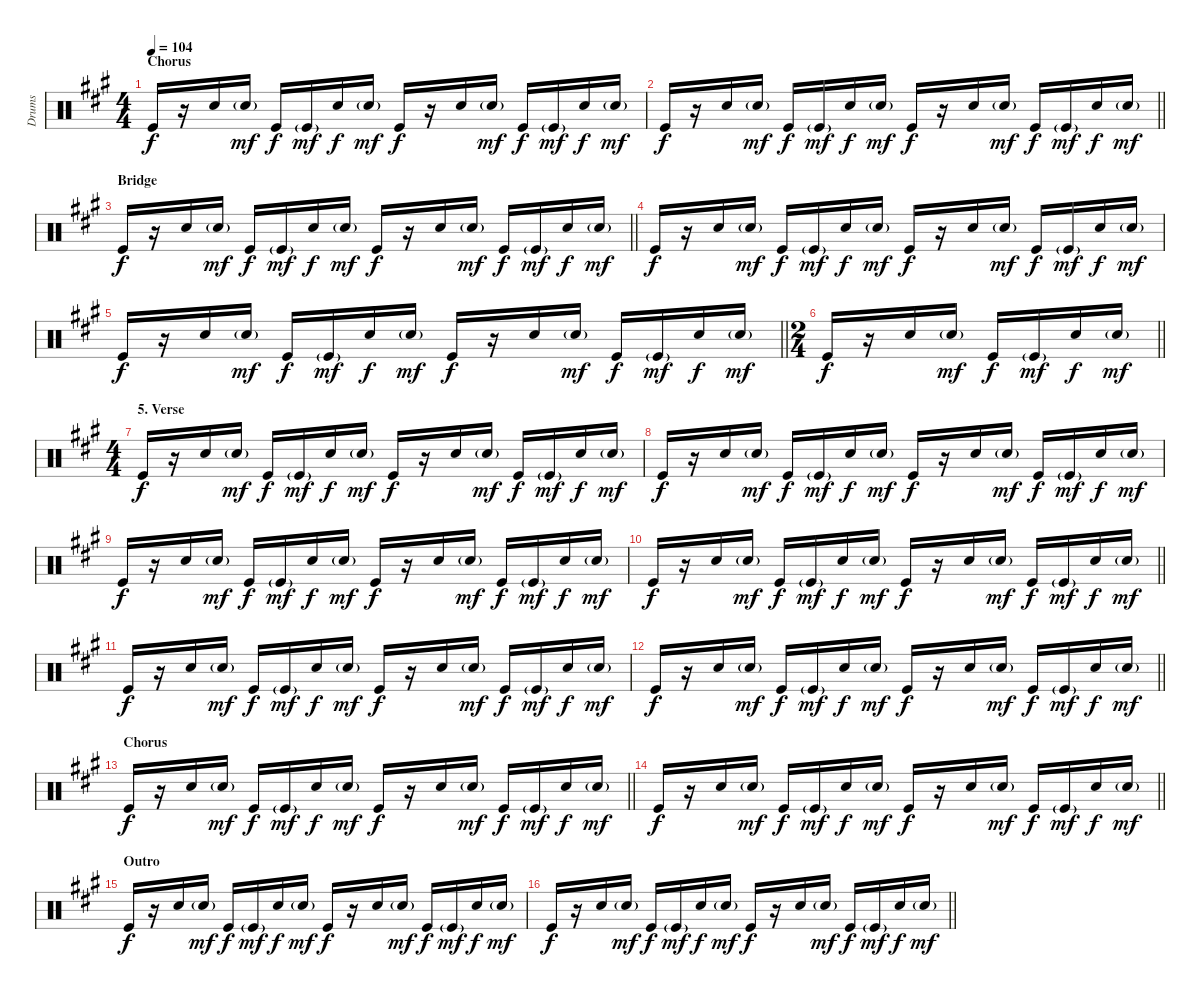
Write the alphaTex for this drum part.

\track ("Drums" "Drums") {mute instrument percussion}
\staff {score}
\articulation defaults
\ts (4 4)
\section ("" "Chorus")
\tempo 104
\clef neutral
\ks a "Kick (hit)".16{dy f}
r.16 "Snare (hit) 2".16 "Snare (hit) 2"{g}.16{dy mf} "Kick (hit)".16{dy f} "Kick (hit)"{g}.16{dy mf} "Snare (hit) 2".16{dy f} "Snare (hit) 2"{g}.16{dy mf} "Kick (hit)".16{dy f} r.16 "Snare (hit) 2".16 "Snare (hit) 2"{g}.16{dy mf} "Kick (hit)".16{dy f} "Kick (hit)"{g}.16{dy mf} "Snare (hit) 2".16{dy f} "Snare (hit) 2"{g}.16{dy mf} |
\barLineRight lightlight "Kick (hit)".16{dy f}
r.16 "Snare (hit) 2".16 "Snare (hit) 2"{g}.16{dy mf} "Kick (hit)".16{dy f} "Kick (hit)"{g}.16{dy mf} "Snare (hit) 2".16{dy f} "Snare (hit) 2"{g}.16{dy mf} "Kick (hit)".16{dy f} r.16 "Snare (hit) 2".16 "Snare (hit) 2"{g}.16{dy mf} "Kick (hit)".16{dy f} "Kick (hit)"{g}.16{dy mf} "Snare (hit) 2".16{dy f} "Snare (hit) 2"{g}.16{dy mf} |
\section ("" "Bridge")
\barLineRight lightlight "Kick (hit)".16{dy f}
r.16 "Snare (hit) 2".16 "Snare (hit) 2"{g}.16{dy mf} "Kick (hit)".16{dy f} "Kick (hit)"{g}.16{dy mf} "Snare (hit) 2".16{dy f} "Snare (hit) 2"{g}.16{dy mf} "Kick (hit)".16{dy f} r.16 "Snare (hit) 2".16 "Snare (hit) 2"{g}.16{dy mf} "Kick (hit)".16{dy f} "Kick (hit)"{g}.16{dy mf} "Snare (hit) 2".16{dy f} "Snare (hit) 2"{g}.16{dy mf} |
"Kick (hit)".16{dy f} r.16 "Snare (hit) 2".16 "Snare (hit) 2"{g}.16{dy mf} "Kick (hit)".16{dy f} "Kick (hit)"{g}.16{dy mf} "Snare (hit) 2".16{dy f} "Snare (hit) 2"{g}.16{dy mf} "Kick (hit)".16{dy f} r.16 "Snare (hit) 2".16 "Snare (hit) 2"{g}.16{dy mf} "Kick (hit)".16{dy f} "Kick (hit)"{g}.16{dy mf} "Snare (hit) 2".16{dy f} "Snare (hit) 2"{g}.16{dy mf} |
\barLineRight lightlight "Kick (hit)".16{dy f}
r.16 "Snare (hit) 2".16 "Snare (hit) 2"{g}.16{dy mf} "Kick (hit)".16{dy f} "Kick (hit)"{g}.16{dy mf} "Snare (hit) 2".16{dy f} "Snare (hit) 2"{g}.16{dy mf} "Kick (hit)".16{dy f} r.16 "Snare (hit) 2".16 "Snare (hit) 2"{g}.16{dy mf} "Kick (hit)".16{dy f} "Kick (hit)"{g}.16{dy mf} "Snare (hit) 2".16{dy f} "Snare (hit) 2"{g}.16{dy mf} |
\ts (2 4)
\barLineRight lightlight "Kick (hit)".16{dy f}
r.16 "Snare (hit) 2".16 "Snare (hit) 2"{g}.16{dy mf} "Kick (hit)".16{dy f} "Kick (hit)"{g}.16{dy mf} "Snare (hit) 2".16{dy f} "Snare (hit) 2"{g}.16{dy mf} |
\ts (4 4)
\section ("" "5. Verse")
"Kick (hit)".16{dy f} r.16 "Snare (hit) 2".16 "Snare (hit) 2"{g}.16{dy mf} "Kick (hit)".16{dy f} "Kick (hit)"{g}.16{dy mf} "Snare (hit) 2".16{dy f} "Snare (hit) 2"{g}.16{dy mf} "Kick (hit)".16{dy f} r.16 "Snare (hit) 2".16 "Snare (hit) 2"{g}.16{dy mf} "Kick (hit)".16{dy f} "Kick (hit)"{g}.16{dy mf} "Snare (hit) 2".16{dy f} "Snare (hit) 2"{g}.16{dy mf} |
"Kick (hit)".16{dy f} r.16 "Snare (hit) 2".16 "Snare (hit) 2"{g}.16{dy mf} "Kick (hit)".16{dy f} "Kick (hit)"{g}.16{dy mf} "Snare (hit) 2".16{dy f} "Snare (hit) 2"{g}.16{dy mf} "Kick (hit)".16{dy f} r.16 "Snare (hit) 2".16 "Snare (hit) 2"{g}.16{dy mf} "Kick (hit)".16{dy f} "Kick (hit)"{g}.16{dy mf} "Snare (hit) 2".16{dy f} "Snare (hit) 2"{g}.16{dy mf} |
"Kick (hit)".16{dy f} r.16 "Snare (hit) 2".16 "Snare (hit) 2"{g}.16{dy mf} "Kick (hit)".16{dy f} "Kick (hit)"{g}.16{dy mf} "Snare (hit) 2".16{dy f} "Snare (hit) 2"{g}.16{dy mf} "Kick (hit)".16{dy f} r.16 "Snare (hit) 2".16 "Snare (hit) 2"{g}.16{dy mf} "Kick (hit)".16{dy f} "Kick (hit)"{g}.16{dy mf} "Snare (hit) 2".16{dy f} "Snare (hit) 2"{g}.16{dy mf} |
\barLineRight lightlight "Kick (hit)".16{dy f}
r.16 "Snare (hit) 2".16 "Snare (hit) 2"{g}.16{dy mf} "Kick (hit)".16{dy f} "Kick (hit)"{g}.16{dy mf} "Snare (hit) 2".16{dy f} "Snare (hit) 2"{g}.16{dy mf} "Kick (hit)".16{dy f} r.16 "Snare (hit) 2".16 "Snare (hit) 2"{g}.16{dy mf} "Kick (hit)".16{dy f} "Kick (hit)"{g}.16{dy mf} "Snare (hit) 2".16{dy f} "Snare (hit) 2"{g}.16{dy mf} |
"Kick (hit)".16{dy f} r.16 "Snare (hit) 2".16 "Snare (hit) 2"{g}.16{dy mf} "Kick (hit)".16{dy f} "Kick (hit)"{g}.16{dy mf} "Snare (hit) 2".16{dy f} "Snare (hit) 2"{g}.16{dy mf} "Kick (hit)".16{dy f} r.16 "Snare (hit) 2".16 "Snare (hit) 2"{g}.16{dy mf} "Kick (hit)".16{dy f} "Kick (hit)"{g}.16{dy mf} "Snare (hit) 2".16{dy f} "Snare (hit) 2"{g}.16{dy mf} |
\barLineRight lightlight "Kick (hit)".16{dy f}
r.16 "Snare (hit) 2".16 "Snare (hit) 2"{g}.16{dy mf} "Kick (hit)".16{dy f} "Kick (hit)"{g}.16{dy mf} "Snare (hit) 2".16{dy f} "Snare (hit) 2"{g}.16{dy mf} "Kick (hit)".16{dy f} r.16 "Snare (hit) 2".16 "Snare (hit) 2"{g}.16{dy mf} "Kick (hit)".16{dy f} "Kick (hit)"{g}.16{dy mf} "Snare (hit) 2".16{dy f} "Snare (hit) 2"{g}.16{dy mf} |
\section ("" "Chorus")
\barLineRight lightlight "Kick (hit)".16{dy f}
r.16 "Snare (hit) 2".16 "Snare (hit) 2"{g}.16{dy mf} "Kick (hit)".16{dy f} "Kick (hit)"{g}.16{dy mf} "Snare (hit) 2".16{dy f} "Snare (hit) 2"{g}.16{dy mf} "Kick (hit)".16{dy f} r.16 "Snare (hit) 2".16 "Snare (hit) 2"{g}.16{dy mf} "Kick (hit)".16{dy f} "Kick (hit)"{g}.16{dy mf} "Snare (hit) 2".16{dy f} "Snare (hit) 2"{g}.16{dy mf} |
\barLineRight lightlight "Kick (hit)".16{dy f}
r.16 "Snare (hit) 2".16 "Snare (hit) 2"{g}.16{dy mf} "Kick (hit)".16{dy f} "Kick (hit)"{g}.16{dy mf} "Snare (hit) 2".16{dy f} "Snare (hit) 2"{g}.16{dy mf} "Kick (hit)".16{dy f} r.16 "Snare (hit) 2".16 "Snare (hit) 2"{g}.16{dy mf} "Kick (hit)".16{dy f} "Kick (hit)"{g}.16{dy mf} "Snare (hit) 2".16{dy f} "Snare (hit) 2"{g}.16{dy mf} |
\section ("" "Outro")
"Kick (hit)".16{dy f} r.16 "Snare (hit) 2".16 "Snare (hit) 2"{g}.16{dy mf} "Kick (hit)".16{dy f} "Kick (hit)"{g}.16{dy mf} "Snare (hit) 2".16{dy f} "Snare (hit) 2"{g}.16{dy mf} "Kick (hit)".16{dy f} r.16 "Snare (hit) 2".16 "Snare (hit) 2"{g}.16{dy mf} "Kick (hit)".16{dy f} "Kick (hit)"{g}.16{dy mf} "Snare (hit) 2".16{dy f} "Snare (hit) 2"{g}.16{dy mf} |
\barLineRight lightlight "Kick (hit)".16{dy f}
r.16 "Snare (hit) 2".16 "Snare (hit) 2"{g}.16{dy mf} "Kick (hit)".16{dy f} "Kick (hit)"{g}.16{dy mf} "Snare (hit) 2".16{dy f} "Snare (hit) 2"{g}.16{dy mf} "Kick (hit)".16{dy f} r.16 "Snare (hit) 2".16 "Snare (hit) 2"{g}.16{dy mf} "Kick (hit)".16{dy f} "Kick (hit)"{g}.16{dy mf} "Snare (hit) 2".16{dy f} "Snare (hit) 2"{g}.16{dy mf}
